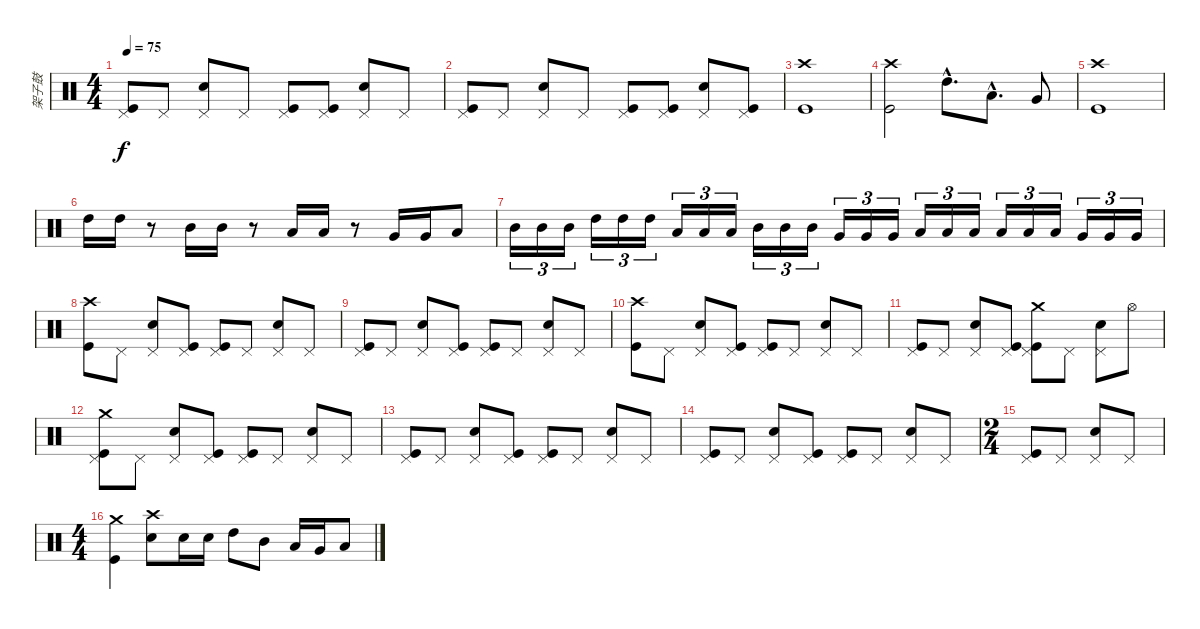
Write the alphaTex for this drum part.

\track ("架子鼓" "架子鼓") {instrument percussion}
\staff {score}
\articulation defaults
\ts (4 4)
\tempo 75
\clef neutral
\ks c
("Kick (hit)" "Pedal Hi-Hat (hit)").8{dy f} "Pedal Hi-Hat (hit)".8 ("Snare (hit) 2" "Pedal Hi-Hat (hit)").8 "Pedal Hi-Hat (hit)".8 ("Kick (hit)" "Pedal Hi-Hat (hit)").8 ("Kick (hit)" "Pedal Hi-Hat (hit)").8 ("Snare (hit) 2" "Pedal Hi-Hat (hit)").8 "Pedal Hi-Hat (hit)".8 |
("Kick (hit)" "Pedal Hi-Hat (hit)").8 "Pedal Hi-Hat (hit)".8 ("Snare (hit) 2" "Pedal Hi-Hat (hit)").8 "Pedal Hi-Hat (hit)".8 ("Kick (hit)" "Pedal Hi-Hat (hit)").8 ("Kick (hit)" "Pedal Hi-Hat (hit)").8 ("Snare (hit) 2" "Pedal Hi-Hat (hit)").8 ("Kick (hit)" "Pedal Hi-Hat (hit)").8 |
("Kick (hit)" "Crash high (hit)").1 |
("Kick (hit)" "Crash high (hit)").2 "High Tom (hit)"{hac}.8{d} "Low Tom (hit)"{hac}.8{d} "Very Low Tom (hit)".8 |
("Kick (hit)" "Crash high (hit)").1 |
"High Tom (hit)".16 "High Tom (hit)".16 r.8 "Mid Tom (hit)".16 "Mid Tom (hit)".16 r.8 "Low Tom (hit)".16 "Low Tom (hit)".16 r.8 "Very Low Tom (hit)".16 "Very Low Tom (hit)".16 "Low Floor Tom (hit)".8 |
"Mid Tom (hit)".16{tu (3 2)} "Mid Tom (hit)".16{tu (3 2)} "Mid Tom (hit)".16{tu (3 2)} "High Tom (hit)".16{tu (3 2)} "High Tom (hit)".16{tu (3 2)} "High Tom (hit)".16{tu (3 2)} "Low Tom (hit)".16{tu (3 2)} "Low Tom (hit)".16{tu (3 2)} "Low Tom (hit)".16{tu (3 2)} "Mid Tom (hit)".16{tu (3 2)} "Mid Tom (hit)".16{tu (3 2)} "Mid Tom (hit)".16{tu (3 2)} "Very Low Tom (hit)".16{tu (3 2)} "Very Low Tom (hit)".16{tu (3 2)} "Very Low Tom (hit)".16{tu (3 2)} "Low Tom (hit)".16{tu (3 2)} "Low Tom (hit)".16{tu (3 2)} "Low Tom (hit)".16{tu (3 2)} "Low Floor Tom (hit)".16{tu (3 2)} "Low Floor Tom (hit)".16{tu (3 2)} "Low Floor Tom (hit)".16{tu (3 2)} "Very Low Tom (hit)".16{tu (3 2)} "Very Low Tom (hit)".16{tu (3 2)} "Very Low Tom (hit)".16{tu (3 2)} |
("Kick (hit)" "Crash high (hit)").8 "Pedal Hi-Hat (hit)".8 ("Snare (hit) 2" "Pedal Hi-Hat (hit)").8 ("Kick (hit)" "Pedal Hi-Hat (hit)").8 ("Kick (hit)" "Pedal Hi-Hat (hit)").8 "Pedal Hi-Hat (hit)".8 ("Snare (hit) 2" "Pedal Hi-Hat (hit)").8 "Pedal Hi-Hat (hit)".8 |
("Kick (hit)" "Pedal Hi-Hat (hit)").8 "Pedal Hi-Hat (hit)".8 ("Snare (hit) 2" "Pedal Hi-Hat (hit)").8 ("Kick (hit)" "Pedal Hi-Hat (hit)").8 ("Kick (hit)" "Pedal Hi-Hat (hit)").8 "Pedal Hi-Hat (hit)".8 ("Snare (hit) 2" "Pedal Hi-Hat (hit)").8 "Pedal Hi-Hat (hit)".8 |
("Kick (hit)" "Crash high (hit)").8 "Pedal Hi-Hat (hit)".8 ("Snare (hit) 2" "Pedal Hi-Hat (hit)").8 ("Kick (hit)" "Pedal Hi-Hat (hit)").8 ("Kick (hit)" "Pedal Hi-Hat (hit)").8 "Pedal Hi-Hat (hit)".8 ("Snare (hit) 2" "Pedal Hi-Hat (hit)").8 "Pedal Hi-Hat (hit)".8 |
("Kick (hit)" "Pedal Hi-Hat (hit)").8 "Pedal Hi-Hat (hit)".8 ("Snare (hit) 2" "Pedal Hi-Hat (hit)").8 ("Kick (hit)" "Pedal Hi-Hat (hit)").8 ("Kick (hit)" "Pedal Hi-Hat (hit)" "Crash medium (hit)").8 "Pedal Hi-Hat (hit)".8 ("Snare (hit) 2" "Pedal Hi-Hat (hit)").8 "Hi-Hat (open)".8 |
("Kick (hit)" "Pedal Hi-Hat (hit)" "Crash medium (hit)").8 "Pedal Hi-Hat (hit)".8 ("Snare (hit) 2" "Pedal Hi-Hat (hit)").8 ("Kick (hit)" "Pedal Hi-Hat (hit)").8 ("Kick (hit)" "Pedal Hi-Hat (hit)").8 "Pedal Hi-Hat (hit)".8 ("Snare (hit) 2" "Pedal Hi-Hat (hit)").8 "Pedal Hi-Hat (hit)".8 |
("Kick (hit)" "Pedal Hi-Hat (hit)").8 "Pedal Hi-Hat (hit)".8 ("Snare (hit) 2" "Pedal Hi-Hat (hit)").8 ("Kick (hit)" "Pedal Hi-Hat (hit)").8 ("Kick (hit)" "Pedal Hi-Hat (hit)").8 "Pedal Hi-Hat (hit)".8 ("Snare (hit) 2" "Pedal Hi-Hat (hit)").8 "Pedal Hi-Hat (hit)".8 |
("Kick (hit)" "Pedal Hi-Hat (hit)").8 "Pedal Hi-Hat (hit)".8 ("Snare (hit) 2" "Pedal Hi-Hat (hit)").8 ("Kick (hit)" "Pedal Hi-Hat (hit)").8 ("Kick (hit)" "Pedal Hi-Hat (hit)").8 "Pedal Hi-Hat (hit)".8 ("Snare (hit) 2" "Pedal Hi-Hat (hit)").8 "Pedal Hi-Hat (hit)".8 |
\ts (2 4)
("Kick (hit)" "Pedal Hi-Hat (hit)").8 "Pedal Hi-Hat (hit)".8 ("Snare (hit) 2" "Pedal Hi-Hat (hit)").8 "Pedal Hi-Hat (hit)".8 |
\ts (4 4)
("Kick (hit)" "Crash medium (hit)").4 ("Snare (hit) 2" "Crash high (hit)").8 "Snare (hit) 2".16 "Snare (hit) 2".16 "High Tom (hit)".8 "Mid Tom (hit)".8 "Low Tom (hit)".16 "Very Low Tom (hit)".16 "Low Floor Tom (hit)".8
